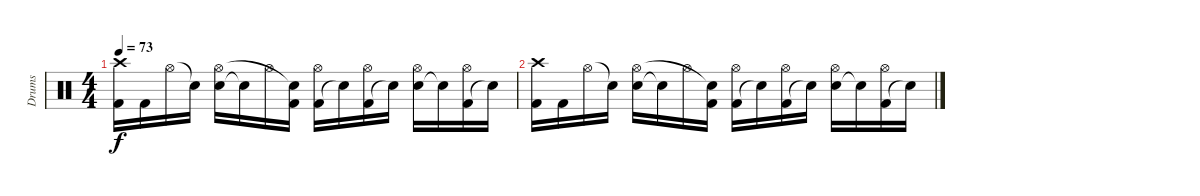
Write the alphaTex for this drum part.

\track ("Drums" "Drums") {instrument percussion}
\staff {score}
\articulation defaults
\ts (4 4)
\tempo 73
\clef neutral
\ks c
("Kick (hit) 2" "Crash high (hit)").16{dy f} "Kick (hit) 2".16 "Hi-Hat (open)".16 "Snare (hit)"{t}.16 ("Snare (hit) 2" "Hi-Hat (open)").16 "Snare (hit)"{t}.16 "Hi-Hat (open)".16 ("Kick (hit) 2" "Snare (hit)"{t}).16 ("Kick (hit) 2" "Hi-Hat (open)").16 "Snare (hit)"{t}.16 ("Kick (hit) 2" "Hi-Hat (open)").16 "Snare (hit)"{t}.16 ("Snare (hit) 2" "Hi-Hat (open)").16 "Snare (hit)"{t}.16 ("Kick (hit) 2" "Hi-Hat (open)").16 "Snare (hit)"{t}.16 |
("Kick (hit) 2" "Crash high (hit)").16 "Kick (hit) 2".16 "Hi-Hat (open)".16 "Snare (hit)"{t}.16 ("Snare (hit) 2" "Hi-Hat (open)").16 "Snare (hit)"{t}.16 "Hi-Hat (open)".16 ("Kick (hit) 2" "Snare (hit)"{t}).16 ("Kick (hit) 2" "Hi-Hat (open)").16 "Snare (hit)"{t}.16 ("Kick (hit) 2" "Hi-Hat (open)").16 "Snare (hit)"{t}.16 ("Snare (hit) 2" "Hi-Hat (open)").16 "Snare (hit)"{t}.16 ("Kick (hit) 2" "Hi-Hat (open)").16 "Snare (hit)"{t}.16
